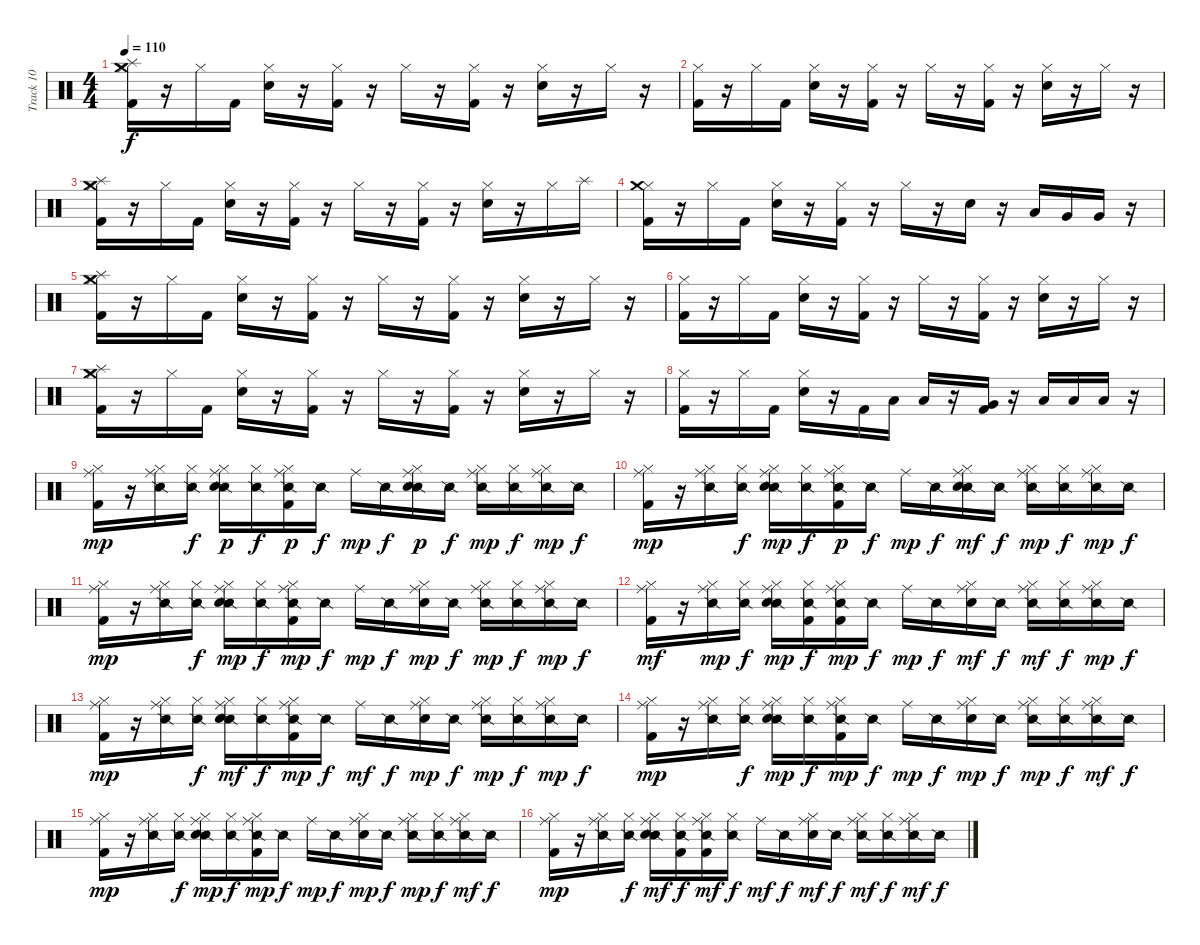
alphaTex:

\track ("Track 10" "Track 10") {instrument percussion}
\staff {score}
\articulation defaults
\ts (4 4)
\tempo 110
\clef neutral
\ks c
("Kick (hit) 2" "Hi-Hat (closed)" "Splash (hit)" "Crash medium (hit)").16{dy f} r.16 "Hi-Hat (closed)".16 "Kick (hit) 2".16 ("Snare (hit) 2" "Hi-Hat (closed)").16 r.16 ("Kick (hit) 2" "Hi-Hat (closed)").16 r.16 "Hi-Hat (closed)".16 r.16 ("Kick (hit) 2" "Hi-Hat (closed)").16 r.16 ("Hi-Hat (closed)" "Snare (hit) 2").16 r.16 "Hi-Hat (closed)".16 r.16 |
("Kick (hit) 2" "Hi-Hat (closed)").16 r.16 "Hi-Hat (closed)".16 "Kick (hit) 2".16 ("Snare (hit) 2" "Hi-Hat (closed)").16 r.16 ("Kick (hit) 2" "Hi-Hat (closed)").16 r.16 "Hi-Hat (closed)".16 r.16 ("Kick (hit) 2" "Hi-Hat (closed)").16 r.16 ("Snare (hit) 2" "Hi-Hat (closed)").16 r.16 "Hi-Hat (closed)".16 r.16 |
("Kick (hit) 2" "Hi-Hat (closed)" "Splash (hit)" "Crash medium (hit)").16 r.16 "Hi-Hat (closed)".16 "Kick (hit) 2".16 ("Snare (hit) 2" "Hi-Hat (closed)").16 r.16 ("Kick (hit) 2" "Hi-Hat (closed)").16 r.16 "Hi-Hat (closed)".16 r.16 ("Kick (hit) 2" "Hi-Hat (closed)").16 r.16 ("Snare (hit) 2" "Hi-Hat (closed)").16 r.16 "Hi-Hat (closed)".16 "Splash (hit)".16 |
("Kick (hit) 2" "Hi-Hat (closed)" "Crash medium (hit)").16 r.16 "Hi-Hat (closed)".16 "Kick (hit) 2".16 ("Hi-Hat (closed)" "Snare (hit) 2").16 r.16 ("Kick (hit) 2" "Hi-Hat (closed)").16 r.16 "Hi-Hat (closed)".16 r.16 "Snare (hit) 2".16 r.16 "Low Tom (hit)".16 "Very Low Tom (hit)".16 "Very Low Tom (hit)".16 r.16 |
("Kick (hit) 2" "Hi-Hat (closed)" "Splash (hit)" "Crash medium (hit)").16 r.16 "Hi-Hat (closed)".16 "Kick (hit) 2".16 ("Snare (hit) 2" "Hi-Hat (closed)").16 r.16 ("Kick (hit) 2" "Hi-Hat (closed)").16 r.16 "Hi-Hat (closed)".16 r.16 ("Kick (hit) 2" "Hi-Hat (closed)").16 r.16 ("Snare (hit) 2" "Hi-Hat (closed)").16 r.16 "Hi-Hat (closed)".16 r.16 |
("Kick (hit) 2" "Hi-Hat (closed)").16 r.16 "Hi-Hat (closed)".16 "Kick (hit) 2".16 ("Snare (hit) 2" "Hi-Hat (closed)").16 r.16 ("Kick (hit) 2" "Hi-Hat (closed)").16 r.16 "Hi-Hat (closed)".16 r.16 ("Kick (hit) 2" "Hi-Hat (closed)").16 r.16 ("Snare (hit) 2" "Hi-Hat (closed)").16 r.16 "Hi-Hat (closed)".16 r.16 |
("Kick (hit) 2" "Hi-Hat (closed)" "Splash (hit)" "Crash medium (hit)").16 r.16 "Hi-Hat (closed)".16 "Kick (hit) 2".16 ("Snare (hit) 2" "Hi-Hat (closed)").16 r.16 ("Kick (hit) 2" "Hi-Hat (closed)").16 r.16 "Hi-Hat (closed)".16 r.16 ("Kick (hit) 2" "Hi-Hat (closed)").16 r.16 ("Snare (hit) 2" "Hi-Hat (closed)").16 r.16 "Hi-Hat (closed)".16 r.16 |
("Kick (hit) 2" "Hi-Hat (closed)").16 r.16 "Hi-Hat (closed)".16 "Kick (hit) 2".16 ("Snare (hit) 2" "Hi-Hat (closed)").16 r.16 "Kick (hit) 2".16 "Low Tom (hit)".16 "Low Tom (hit)".16 r.16 ("Kick (hit) 2" "Very Low Tom (hit)").16 r.16 "Low Floor Tom (hit)".16 "Low Floor Tom (hit)".16 "Low Floor Tom (hit)".16 r.16 |
("Ride (middle)" "Kick (hit) 2" "Hi-Hat (closed)").16{dy mp} r.16 ("Ride (middle)" "Snare (side stick) 2" "Hi-Hat (closed)").16 ("Snare (side stick) 2" "Hi-Hat (closed)").16{dy f} ("Ride (middle)" "Snare (side stick) 2" "Electric Snare (hit)" "Hi-Hat (closed)").16{dy p} ("Snare (side stick) 2" "Hi-Hat (closed)").16{dy f} ("Ride (middle)" "Kick (hit) 2" "Snare (side stick) 2" "Hi-Hat (closed)").16{dy p} "Snare (side stick) 2".16{dy f} "Ride (middle)".16{dy mp} "Snare (side stick) 2".16{dy f} ("Ride (middle)" "Snare (side stick) 2" "Electric Snare (hit)" "Hi-Hat (closed)").16{dy p} "Snare (side stick) 2".16{dy f} ("Ride (middle)" "Snare (side stick) 2" "Hi-Hat (closed)").16{dy mp} ("Snare (side stick) 2" "Hi-Hat (closed)").16{dy f} ("Ride (middle)" "Snare (side stick) 2" "Hi-Hat (closed)").16{dy mp} "Snare (side stick) 2".16{dy f} |
("Ride (middle)" "Kick (hit) 2" "Hi-Hat (closed)").16{dy mp} r.16 ("Ride (middle)" "Snare (side stick) 2" "Hi-Hat (closed)").16 ("Snare (side stick) 2" "Hi-Hat (closed)").16{dy f} ("Ride (middle)" "Snare (side stick) 2" "Electric Snare (hit)" "Hi-Hat (closed)").16{dy mp} ("Snare (side stick) 2" "Hi-Hat (closed)").16{dy f} ("Ride (middle)" "Kick (hit) 2" "Snare (side stick) 2" "Hi-Hat (closed)").16{dy p} "Snare (side stick) 2".16{dy f} "Ride (middle)".16{dy mp} "Snare (side stick) 2".16{dy f} ("Ride (middle)" "Snare (side stick) 2" "Electric Snare (hit)" "Hi-Hat (closed)").16{dy mf} "Snare (side stick) 2".16{dy f} ("Ride (middle)" "Snare (side stick) 2" "Hi-Hat (closed)").16{dy mp} ("Snare (side stick) 2" "Hi-Hat (closed)").16{dy f} ("Ride (middle)" "Snare (side stick) 2" "Hi-Hat (closed)").16{dy mp} "Snare (side stick) 2".16{dy f} |
("Ride (middle)" "Kick (hit) 2" "Hi-Hat (closed)").16{dy mp} r.16 ("Ride (middle)" "Snare (side stick) 2" "Hi-Hat (closed)").16 ("Snare (side stick) 2" "Hi-Hat (closed)").16{dy f} ("Ride (middle)" "Snare (side stick) 2" "Electric Snare (hit)" "Hi-Hat (closed)").16{dy mp} ("Snare (side stick) 2" "Hi-Hat (closed)").16{dy f} ("Ride (middle)" "Kick (hit) 2" "Snare (side stick) 2" "Hi-Hat (closed)").16{dy mp} "Snare (side stick) 2".16{dy f} "Ride (middle)".16{dy mp} "Snare (side stick) 2".16{dy f} ("Ride (middle)" "Electric Snare (hit)" "Hi-Hat (closed)").16{dy mp} "Snare (side stick) 2".16{dy f} ("Ride (middle)" "Snare (side stick) 2" "Hi-Hat (closed)").16{dy mp} ("Snare (side stick) 2" "Hi-Hat (closed)").16{dy f} ("Ride (middle)" "Snare (side stick) 2" "Hi-Hat (closed)").16{dy mp} "Snare (side stick) 2".16{dy f} |
("Ride (middle)" "Kick (hit) 2" "Hi-Hat (closed)").16{dy mf} r.16 ("Ride (middle)" "Snare (side stick) 2" "Hi-Hat (closed)").16{dy mp} ("Snare (side stick) 2" "Hi-Hat (closed)").16{dy f} ("Ride (middle)" "Snare (side stick) 2" "Hi-Hat (closed)" "Electric Snare (hit)").16{dy mp} ("Kick (hit) 2" "Snare (side stick) 2" "Hi-Hat (closed)").16{dy f} ("Ride (middle)" "Kick (hit) 2" "Snare (side stick) 2" "Hi-Hat (closed)").16{dy mp} "Snare (side stick) 2".16{dy f} "Ride (middle)".16{dy mp} "Snare (side stick) 2".16{dy f} ("Ride (middle)" "Electric Snare (hit)" "Hi-Hat (closed)").16{dy mf} "Snare (side stick) 2".16{dy f} ("Ride (middle)" "Snare (side stick) 2" "Hi-Hat (closed)").16{dy mf} ("Snare (side stick) 2" "Hi-Hat (closed)").16{dy f} ("Ride (middle)" "Snare (side stick) 2" "Hi-Hat (closed)").16{dy mp} "Snare (side stick) 2".16{dy f} |
("Ride (middle)" "Kick (hit) 2" "Hi-Hat (closed)").16{dy mp} r.16 ("Ride (middle)" "Snare (side stick) 2" "Hi-Hat (closed)").16 ("Snare (side stick) 2" "Hi-Hat (closed)").16{dy f} ("Ride (middle)" "Snare (side stick) 2" "Electric Snare (hit)" "Hi-Hat (closed)").16{dy mf} ("Snare (side stick) 2" "Hi-Hat (closed)").16{dy f} ("Ride (middle)" "Kick (hit) 2" "Snare (side stick) 2" "Hi-Hat (closed)").16{dy mp} "Snare (side stick) 2".16{dy f} "Ride (middle)".16{dy mf} "Snare (side stick) 2".16{dy f} ("Ride (middle)" "Electric Snare (hit)" "Hi-Hat (closed)").16{dy mp} "Snare (side stick) 2".16{dy f} ("Ride (middle)" "Snare (side stick) 2" "Hi-Hat (closed)").16{dy mp} ("Snare (side stick) 2" "Hi-Hat (closed)").16{dy f} ("Ride (middle)" "Snare (side stick) 2" "Hi-Hat (closed)").16{dy mp} "Snare (side stick) 2".16{dy f} |
("Ride (middle)" "Kick (hit) 2" "Hi-Hat (closed)").16{dy mp} r.16 ("Ride (middle)" "Snare (side stick) 2" "Hi-Hat (closed)").16 ("Snare (side stick) 2" "Hi-Hat (closed)").16{dy f} ("Ride (middle)" "Snare (side stick) 2" "Electric Snare (hit)" "Hi-Hat (closed)").16{dy mp} ("Snare (side stick) 2" "Hi-Hat (closed)").16{dy f} ("Ride (middle)" "Kick (hit) 2" "Snare (side stick) 2" "Hi-Hat (closed)").16{dy mp} "Snare (side stick) 2".16{dy f} "Ride (middle)".16{dy mp} "Snare (side stick) 2".16{dy f} ("Ride (middle)" "Electric Snare (hit)" "Hi-Hat (closed)").16{dy mp} "Snare (side stick) 2".16{dy f} ("Ride (middle)" "Snare (side stick) 2" "Hi-Hat (closed)").16{dy mp} ("Snare (side stick) 2" "Hi-Hat (closed)").16{dy f} ("Ride (middle)" "Snare (side stick) 2" "Hi-Hat (closed)").16{dy mf} "Snare (side stick) 2".16{dy f} |
("Ride (middle)" "Kick (hit) 2" "Hi-Hat (closed)").16{dy mp} r.16 ("Ride (middle)" "Snare (side stick) 2" "Hi-Hat (closed)").16 ("Snare (side stick) 2" "Hi-Hat (closed)").16{dy f} ("Ride (middle)" "Snare (side stick) 2" "Electric Snare (hit)" "Hi-Hat (closed)").16{dy mp} ("Snare (side stick) 2" "Hi-Hat (closed)").16{dy f} ("Ride (middle)" "Kick (hit) 2" "Snare (side stick) 2" "Hi-Hat (closed)").16{dy mp} "Snare (side stick) 2".16{dy f} "Ride (middle)".16{dy mp} "Snare (side stick) 2".16{dy f} ("Ride (middle)" "Electric Snare (hit)" "Hi-Hat (closed)").16{dy mp} "Snare (side stick) 2".16{dy f} ("Ride (middle)" "Snare (side stick) 2" "Hi-Hat (closed)").16{dy mp} ("Snare (side stick) 2" "Hi-Hat (closed)").16{dy f} ("Ride (middle)" "Snare (side stick) 2" "Hi-Hat (closed)").16{dy mf} "Snare (side stick) 2".16{dy f} |
("Ride (middle)" "Kick (hit) 2" "Hi-Hat (closed)").16{dy mp} r.16 ("Ride (middle)" "Snare (side stick) 2" "Hi-Hat (closed)").16 ("Snare (side stick) 2" "Hi-Hat (closed)").16{dy f} ("Ride (middle)" "Snare (side stick) 2" "Electric Snare (hit)" "Hi-Hat (closed)").16{dy mf} ("Kick (hit) 2" "Snare (side stick) 2" "Hi-Hat (closed)").16{dy f} ("Ride (middle)" "Kick (hit) 2" "Snare (side stick) 2" "Hi-Hat (closed)").16{dy mf} ("Snare (side stick) 2" "Hi-Hat (closed)").16{dy f} "Ride (middle)".16{dy mf} "Snare (side stick) 2".16{dy f} ("Ride (middle)" "Hi-Hat (closed)" "Electric Snare (hit)").16{dy mf} "Snare (side stick) 2".16{dy f} ("Ride (middle)" "Snare (side stick) 2" "Hi-Hat (closed)").16{dy mf} ("Snare (side stick) 2" "Hi-Hat (closed)").16{dy f} ("Ride (middle)" "Snare (side stick) 2" "Hi-Hat (closed)").16{dy mf} "Snare (side stick) 2".16{dy f}
